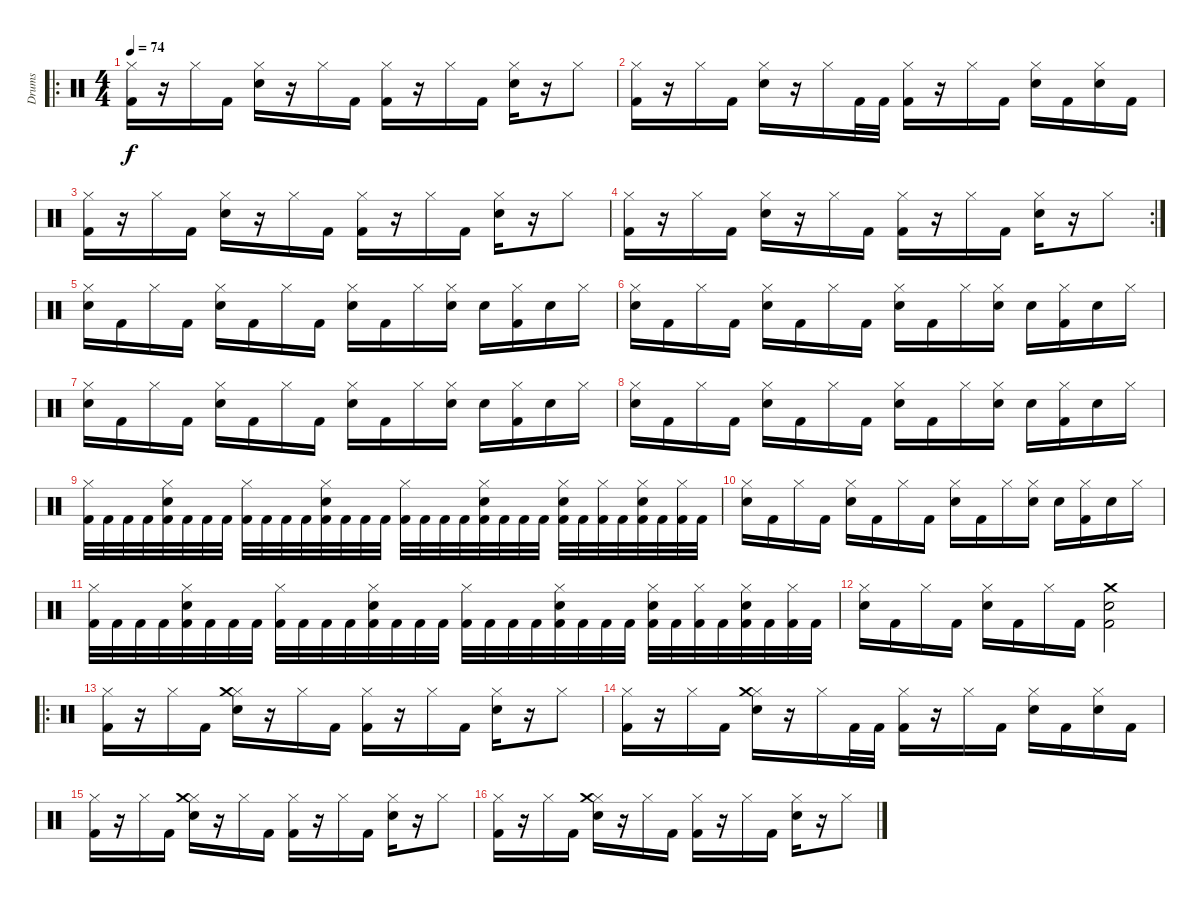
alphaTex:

\track ("Drums" "Drums") {instrument percussion}
\staff {score}
\articulation defaults
\ro
\ts (4 4)
\tempo 74
\clef neutral
\ks c
("Hi-Hat (closed)" "Kick (hit) 2").16{dy f} r.16 "Hi-Hat (closed)".16 "Kick (hit) 2".16 ("Hi-Hat (closed)" "Snare (hit) 2").16 r.16 "Hi-Hat (closed)".16 "Kick (hit) 2".16 ("Hi-Hat (closed)" "Kick (hit) 2").16 r.16 "Hi-Hat (closed)".16 "Kick (hit) 2".16 ("Hi-Hat (closed)" "Snare (hit) 2").16 r.16 "Hi-Hat (closed)".8 |
("Hi-Hat (closed)" "Kick (hit) 2").16 r.16 "Hi-Hat (closed)".16 "Kick (hit) 2".16 ("Hi-Hat (closed)" "Snare (hit) 2").16 r.16 "Hi-Hat (closed)".16 "Kick (hit) 2".32 "Kick (hit) 2".32 ("Hi-Hat (closed)" "Kick (hit) 2").16 r.16 "Hi-Hat (closed)".16 "Kick (hit) 2".16 ("Hi-Hat (closed)" "Snare (hit) 2").16 "Kick (hit) 2".16 ("Hi-Hat (closed)" "Snare (hit) 2").16 "Kick (hit) 2".16 |
("Hi-Hat (closed)" "Kick (hit) 2").16 r.16 "Hi-Hat (closed)".16 "Kick (hit) 2".16 ("Hi-Hat (closed)" "Snare (hit) 2").16 r.16 "Hi-Hat (closed)".16 "Kick (hit) 2".16 ("Hi-Hat (closed)" "Kick (hit) 2").16 r.16 "Hi-Hat (closed)".16 "Kick (hit) 2".16 ("Hi-Hat (closed)" "Snare (hit) 2").16 r.16 "Hi-Hat (closed)".8 |
\rc 2
("Hi-Hat (closed)" "Kick (hit) 2").16 r.16 "Hi-Hat (closed)".16 "Kick (hit) 2".16 ("Hi-Hat (closed)" "Snare (hit) 2").16 r.16 "Hi-Hat (closed)".16 "Kick (hit) 2".16 ("Hi-Hat (closed)" "Kick (hit) 2").16 r.16 "Hi-Hat (closed)".16 "Kick (hit) 2".16 ("Hi-Hat (closed)" "Snare (hit) 2").16 r.16 "Hi-Hat (closed)".8 |
("Hi-Hat (closed)" "Snare (hit) 2").16 "Kick (hit) 2".16 "Hi-Hat (closed)".16 "Kick (hit) 2".16 ("Hi-Hat (closed)" "Snare (hit) 2").16 "Kick (hit) 2".16 "Hi-Hat (closed)".16 "Kick (hit) 2".16 ("Hi-Hat (closed)" "Snare (hit) 2").16 "Kick (hit) 2".16 "Hi-Hat (closed)".16 ("Hi-Hat (closed)" "Snare (hit) 2").16 "Snare (hit) 2".16 ("Hi-Hat (closed)" "Kick (hit) 2").16 "Snare (hit) 2".16 "Hi-Hat (closed)".16 |
("Hi-Hat (closed)" "Snare (hit) 2").16 "Kick (hit) 2".16 "Hi-Hat (closed)".16 "Kick (hit) 2".16 ("Hi-Hat (closed)" "Snare (hit) 2").16 "Kick (hit) 2".16 "Hi-Hat (closed)".16 "Kick (hit) 2".16 ("Hi-Hat (closed)" "Snare (hit) 2").16 "Kick (hit) 2".16 "Hi-Hat (closed)".16 ("Hi-Hat (closed)" "Snare (hit) 2").16 "Snare (hit) 2".16 ("Hi-Hat (closed)" "Kick (hit) 2").16 "Snare (hit) 2".16 "Hi-Hat (closed)".16 |
("Hi-Hat (closed)" "Snare (hit) 2").16 "Kick (hit) 2".16 "Hi-Hat (closed)".16 "Kick (hit) 2".16 ("Hi-Hat (closed)" "Snare (hit) 2").16 "Kick (hit) 2".16 "Hi-Hat (closed)".16 "Kick (hit) 2".16 ("Hi-Hat (closed)" "Snare (hit) 2").16 "Kick (hit) 2".16 "Hi-Hat (closed)".16 ("Hi-Hat (closed)" "Snare (hit) 2").16 "Snare (hit) 2".16 ("Hi-Hat (closed)" "Kick (hit) 2").16 "Snare (hit) 2".16 "Hi-Hat (closed)".16 |
("Hi-Hat (closed)" "Snare (hit) 2").16 "Kick (hit) 2".16 "Hi-Hat (closed)".16 "Kick (hit) 2".16 ("Hi-Hat (closed)" "Snare (hit) 2").16 "Kick (hit) 2".16 "Hi-Hat (closed)".16 "Kick (hit) 2".16 ("Hi-Hat (closed)" "Snare (hit) 2").16 "Kick (hit) 2".16 "Hi-Hat (closed)".16 ("Hi-Hat (closed)" "Snare (hit) 2").16 "Snare (hit) 2".16 ("Hi-Hat (closed)" "Kick (hit) 2").16 "Snare (hit) 2".16 "Hi-Hat (closed)".16 |
("Hi-Hat (closed)" "Kick (hit) 2").32 "Kick (hit) 2".32 "Kick (hit) 2".32 "Kick (hit) 2".32 ("Hi-Hat (closed)" "Snare (hit) 2" "Kick (hit) 2").32 "Kick (hit) 2".32 "Kick (hit) 2".32 "Kick (hit) 2".32 ("Hi-Hat (closed)" "Kick (hit) 2").32 "Kick (hit) 2".32 "Kick (hit) 2".32 "Kick (hit) 2".32 ("Hi-Hat (closed)" "Snare (hit) 2" "Kick (hit) 2").32 "Kick (hit) 2".32 "Kick (hit) 2".32 "Kick (hit) 2".32 ("Hi-Hat (closed)" "Kick (hit) 2").32 "Kick (hit) 2".32 "Kick (hit) 2".32 "Kick (hit) 2".32 ("Hi-Hat (closed)" "Snare (hit) 2" "Kick (hit) 2").32 "Kick (hit) 2".32 "Kick (hit) 2".32 "Kick (hit) 2".32 ("Hi-Hat (closed)" "Snare (hit) 2" "Kick (hit) 2").32 "Kick (hit) 2".32 ("Hi-Hat (closed)" "Kick (hit) 2").32 "Kick (hit) 2".32 ("Hi-Hat (closed)" "Snare (hit) 2" "Kick (hit) 2").32 "Kick (hit) 2".32 ("Hi-Hat (closed)" "Kick (hit) 2").32 "Kick (hit) 2".32 |
("Hi-Hat (closed)" "Snare (hit) 2").16 "Kick (hit) 2".16 "Hi-Hat (closed)".16 "Kick (hit) 2".16 ("Hi-Hat (closed)" "Snare (hit) 2").16 "Kick (hit) 2".16 "Hi-Hat (closed)".16 "Kick (hit) 2".16 ("Hi-Hat (closed)" "Snare (hit) 2").16 "Kick (hit) 2".16 "Hi-Hat (closed)".16 ("Hi-Hat (closed)" "Snare (hit) 2").16 "Snare (hit) 2".16 ("Hi-Hat (closed)" "Kick (hit) 2").16 "Snare (hit) 2".16 "Hi-Hat (closed)".16 |
("Hi-Hat (closed)" "Kick (hit) 2").32 "Kick (hit) 2".32 "Kick (hit) 2".32 "Kick (hit) 2".32 ("Hi-Hat (closed)" "Snare (hit) 2" "Kick (hit) 2").32 "Kick (hit) 2".32 "Kick (hit) 2".32 "Kick (hit) 2".32 ("Hi-Hat (closed)" "Kick (hit) 2").32 "Kick (hit) 2".32 "Kick (hit) 2".32 "Kick (hit) 2".32 ("Hi-Hat (closed)" "Snare (hit) 2" "Kick (hit) 2").32 "Kick (hit) 2".32 "Kick (hit) 2".32 "Kick (hit) 2".32 ("Hi-Hat (closed)" "Kick (hit) 2").32 "Kick (hit) 2".32 "Kick (hit) 2".32 "Kick (hit) 2".32 ("Hi-Hat (closed)" "Snare (hit) 2" "Kick (hit) 2").32 "Kick (hit) 2".32 "Kick (hit) 2".32 "Kick (hit) 2".32 ("Hi-Hat (closed)" "Snare (hit) 2" "Kick (hit) 2").32 "Kick (hit) 2".32 ("Hi-Hat (closed)" "Kick (hit) 2").32 "Kick (hit) 2".32 ("Hi-Hat (closed)" "Snare (hit) 2" "Kick (hit) 2").32 "Kick (hit) 2".32 ("Hi-Hat (closed)" "Kick (hit) 2").32 "Kick (hit) 2".32 |
("Hi-Hat (closed)" "Snare (hit) 2").16 "Kick (hit) 2".16 "Hi-Hat (closed)".16 "Kick (hit) 2".16 ("Hi-Hat (closed)" "Snare (hit) 2").16 "Kick (hit) 2".16 "Hi-Hat (closed)".16 "Kick (hit) 2".16 ("Crash medium (hit)" "Snare (hit) 2" "Kick (hit) 2").2 |
\ro
("Hi-Hat (closed)" "Kick (hit) 2").16 r.16 "Hi-Hat (closed)".16 "Kick (hit) 2".16 ("Hi-Hat (closed)" "Snare (hit) 2" "Crash medium (hit)").16 r.16 "Hi-Hat (closed)".16 "Kick (hit) 2".16 ("Hi-Hat (closed)" "Kick (hit) 2").16 r.16 "Hi-Hat (closed)".16 "Kick (hit) 2".16 ("Hi-Hat (closed)" "Snare (hit) 2").16 r.16 "Hi-Hat (closed)".8 |
("Hi-Hat (closed)" "Kick (hit) 2").16 r.16 "Hi-Hat (closed)".16 "Kick (hit) 2".16 ("Hi-Hat (closed)" "Snare (hit) 2" "Crash medium (hit)").16 r.16 "Hi-Hat (closed)".16 "Kick (hit) 2".32 "Kick (hit) 2".32 ("Hi-Hat (closed)" "Kick (hit) 2").16 r.16 "Hi-Hat (closed)".16 "Kick (hit) 2".16 ("Hi-Hat (closed)" "Snare (hit) 2").16 "Kick (hit) 2".16 ("Hi-Hat (closed)" "Snare (hit) 2").16 "Kick (hit) 2".16 |
("Hi-Hat (closed)" "Kick (hit) 2").16 r.16 "Hi-Hat (closed)".16 "Kick (hit) 2".16 ("Hi-Hat (closed)" "Snare (hit) 2" "Crash medium (hit)").16 r.16 "Hi-Hat (closed)".16 "Kick (hit) 2".16 ("Hi-Hat (closed)" "Kick (hit) 2").16 r.16 "Hi-Hat (closed)".16 "Kick (hit) 2".16 ("Hi-Hat (closed)" "Snare (hit) 2").16 r.16 "Hi-Hat (closed)".8 |
("Hi-Hat (closed)" "Kick (hit) 2").16 r.16 "Hi-Hat (closed)".16 "Kick (hit) 2".16 ("Hi-Hat (closed)" "Snare (hit) 2" "Crash medium (hit)").16 r.16 "Hi-Hat (closed)".16 "Kick (hit) 2".16 ("Hi-Hat (closed)" "Kick (hit) 2").16 r.16 "Hi-Hat (closed)".16 "Kick (hit) 2".16 ("Hi-Hat (closed)" "Snare (hit) 2").16 r.16 "Hi-Hat (closed)".8
